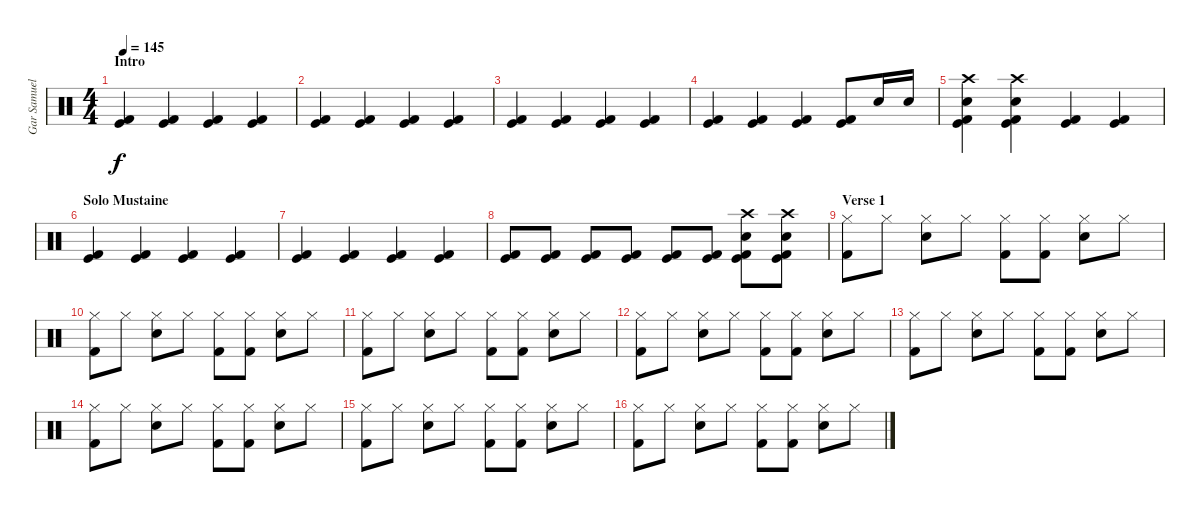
\track ("Gar Samuelson (Drums)" "Gar Samuel") {instrument percussion}
\staff {score}
\articulation defaults
\ts (4 4)
\section ("" "Intro")
\tempo 145
\clef neutral
\ks c
("Kick (hit) 2" "Kick (hit)").4{dy f} ("Kick (hit) 2" "Kick (hit)").4 ("Kick (hit) 2" "Kick (hit)").4 ("Kick (hit) 2" "Kick (hit)").4 |
("Kick (hit) 2" "Kick (hit)").4 ("Kick (hit) 2" "Kick (hit)").4 ("Kick (hit) 2" "Kick (hit)").4 ("Kick (hit) 2" "Kick (hit)").4 |
("Kick (hit) 2" "Kick (hit)").4 ("Kick (hit) 2" "Kick (hit)").4 ("Kick (hit) 2" "Kick (hit)").4 ("Kick (hit) 2" "Kick (hit)").4 |
("Kick (hit) 2" "Kick (hit)").4 ("Kick (hit) 2" "Kick (hit)").4 ("Kick (hit) 2" "Kick (hit)").4 ("Kick (hit) 2" "Kick (hit)").8 "Electric Snare (hit)".16 "Electric Snare (hit)".16 |
("Crash high (hit)" "Electric Snare (hit)" "Kick (hit) 2" "Kick (hit)").4 ("Crash high (hit)" "Electric Snare (hit)" "Kick (hit) 2" "Kick (hit)").4 ("Kick (hit) 2" "Kick (hit)").4 ("Kick (hit) 2" "Kick (hit)").4 |
\section ("" "Solo Mustaine")
("Kick (hit) 2" "Kick (hit)").4 ("Kick (hit) 2" "Kick (hit)").4 ("Kick (hit) 2" "Kick (hit)").4 ("Kick (hit) 2" "Kick (hit)").4 |
("Kick (hit) 2" "Kick (hit)").4 ("Kick (hit) 2" "Kick (hit)").4 ("Kick (hit) 2" "Kick (hit)").4 ("Kick (hit) 2" "Kick (hit)").4 |
("Kick (hit) 2" "Kick (hit)").8 ("Kick (hit) 2" "Kick (hit)").8 ("Kick (hit) 2" "Kick (hit)").8 ("Kick (hit) 2" "Kick (hit)").8 ("Kick (hit) 2" "Kick (hit)").8 ("Kick (hit) 2" "Kick (hit)").8 ("Crash high (hit)" "Electric Snare (hit)" "Kick (hit) 2" "Kick (hit)").8 ("Crash high (hit)" "Electric Snare (hit)" "Kick (hit) 2" "Kick (hit)").8 |
\section ("" "Verse 1")
("Hi-Hat (closed)" "Kick (hit) 2").8 "Hi-Hat (closed)".8 ("Hi-Hat (closed)" "Electric Snare (hit)").8 "Hi-Hat (closed)".8 ("Hi-Hat (closed)" "Kick (hit) 2").8 ("Hi-Hat (closed)" "Kick (hit) 2").8 ("Hi-Hat (closed)" "Electric Snare (hit)").8 "Hi-Hat (closed)".8 |
("Hi-Hat (closed)" "Kick (hit) 2").8 "Hi-Hat (closed)".8 ("Hi-Hat (closed)" "Electric Snare (hit)").8 "Hi-Hat (closed)".8 ("Hi-Hat (closed)" "Kick (hit) 2").8 ("Hi-Hat (closed)" "Kick (hit) 2").8 ("Hi-Hat (closed)" "Electric Snare (hit)").8 "Hi-Hat (closed)".8 |
("Hi-Hat (closed)" "Kick (hit) 2").8 "Hi-Hat (closed)".8 ("Hi-Hat (closed)" "Electric Snare (hit)").8 "Hi-Hat (closed)".8 ("Hi-Hat (closed)" "Kick (hit) 2").8 ("Hi-Hat (closed)" "Kick (hit) 2").8 ("Hi-Hat (closed)" "Electric Snare (hit)").8 "Hi-Hat (closed)".8 |
("Hi-Hat (closed)" "Kick (hit) 2").8 "Hi-Hat (closed)".8 ("Hi-Hat (closed)" "Electric Snare (hit)").8 "Hi-Hat (closed)".8 ("Hi-Hat (closed)" "Kick (hit) 2").8 ("Hi-Hat (closed)" "Kick (hit) 2").8 ("Hi-Hat (closed)" "Electric Snare (hit)").8 "Hi-Hat (closed)".8 |
("Hi-Hat (closed)" "Kick (hit) 2").8 "Hi-Hat (closed)".8 ("Hi-Hat (closed)" "Electric Snare (hit)").8 "Hi-Hat (closed)".8 ("Hi-Hat (closed)" "Kick (hit) 2").8 ("Hi-Hat (closed)" "Kick (hit) 2").8 ("Hi-Hat (closed)" "Electric Snare (hit)").8 "Hi-Hat (closed)".8 |
("Hi-Hat (closed)" "Kick (hit) 2").8 "Hi-Hat (closed)".8 ("Hi-Hat (closed)" "Electric Snare (hit)").8 "Hi-Hat (closed)".8 ("Hi-Hat (closed)" "Kick (hit) 2").8 ("Hi-Hat (closed)" "Kick (hit) 2").8 ("Hi-Hat (closed)" "Electric Snare (hit)").8 "Hi-Hat (closed)".8 |
("Hi-Hat (closed)" "Kick (hit) 2").8 "Hi-Hat (closed)".8 ("Hi-Hat (closed)" "Electric Snare (hit)").8 "Hi-Hat (closed)".8 ("Hi-Hat (closed)" "Kick (hit) 2").8 ("Hi-Hat (closed)" "Kick (hit) 2").8 ("Hi-Hat (closed)" "Electric Snare (hit)").8 "Hi-Hat (closed)".8 |
("Hi-Hat (closed)" "Kick (hit) 2").8 "Hi-Hat (closed)".8 ("Hi-Hat (closed)" "Electric Snare (hit)").8 "Hi-Hat (closed)".8 ("Hi-Hat (closed)" "Kick (hit) 2").8 ("Hi-Hat (closed)" "Kick (hit) 2").8 ("Hi-Hat (closed)" "Electric Snare (hit)").8 "Hi-Hat (closed)".8
